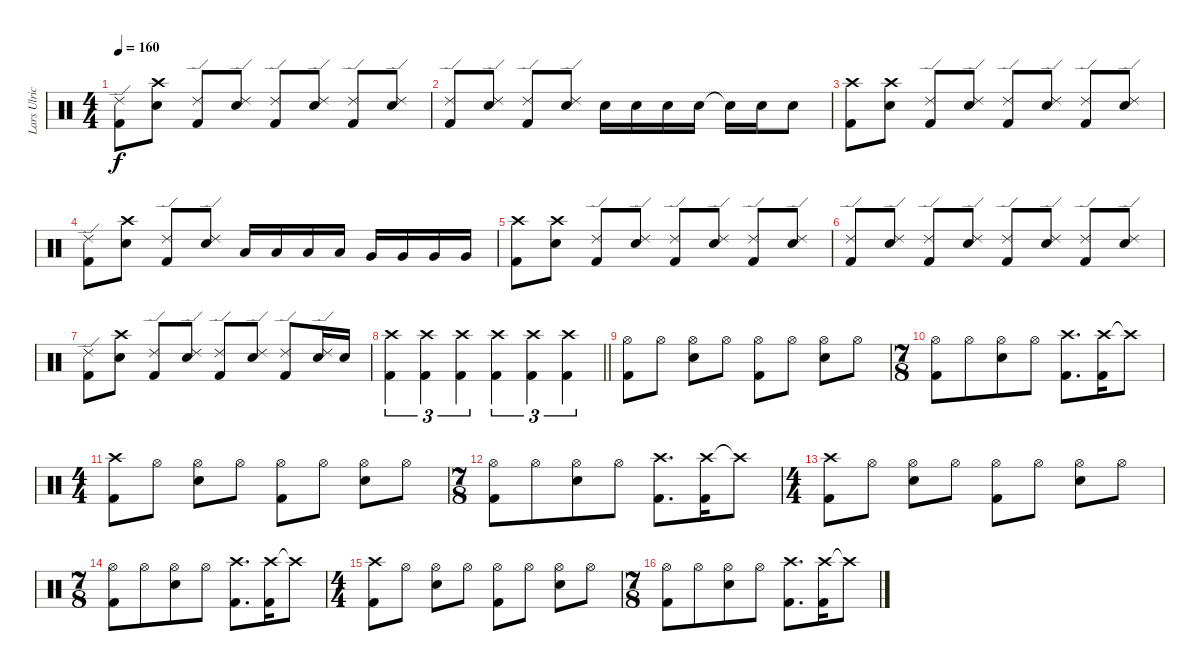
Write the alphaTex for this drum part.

\track ("Lars Ulrich" "Lars Ulric") {instrument percussion}
\staff {score}
\articulation defaults
\ts (4 4)
\tempo 160
\clef neutral
\ks c
("Ride (edge) 2" "Kick (hit) 2").8{dy f} ("Crash high (hit)" "Electric Snare (hit)").8 ("Ride (edge) 2" "Kick (hit) 2").8 ("Ride (edge) 2" "Electric Snare (hit)").8 ("Ride (edge) 2" "Kick (hit) 2").8 ("Ride (edge) 2" "Electric Snare (hit)").8 ("Ride (edge) 2" "Kick (hit) 2").8 ("Ride (edge) 2" "Electric Snare (hit)").8 |
("Ride (edge) 2" "Kick (hit) 2").8 ("Ride (edge) 2" "Electric Snare (hit)").8 ("Ride (edge) 2" "Kick (hit) 2").8 ("Ride (edge) 2" "Electric Snare (hit)").8 "Electric Snare (hit)".16 "Electric Snare (hit)".16 "Electric Snare (hit)".16 "Electric Snare (hit)".16 "Snare (hit)"{t}.16 "Electric Snare (hit)".16 "Electric Snare (hit)".8 |
("Crash high (hit)" "Kick (hit) 2").8 ("Crash high (hit)" "Electric Snare (hit)").8 ("Ride (edge) 2" "Kick (hit) 2").8 ("Ride (edge) 2" "Electric Snare (hit)").8 ("Ride (edge) 2" "Kick (hit) 2").8 ("Ride (edge) 2" "Electric Snare (hit)").8 ("Ride (edge) 2" "Kick (hit) 2").8 ("Ride (edge) 2" "Electric Snare (hit)").8 |
("Ride (edge) 2" "Kick (hit) 2").8 ("Crash high (hit)" "Electric Snare (hit)").8 ("Ride (edge) 2" "Kick (hit) 2").8 ("Ride (edge) 2" "Electric Snare (hit)").8 "Low Tom (hit)".16 "Low Tom (hit)".16 "Low Tom (hit)".16 "Low Tom (hit)".16 "Very Low Tom (hit)".16 "Very Low Tom (hit)".16 "Very Low Tom (hit)".16 "Very Low Tom (hit)".16 |
("Crash high (hit)" "Kick (hit) 2").8 ("Crash high (hit)" "Electric Snare (hit)").8 ("Ride (edge) 2" "Kick (hit) 2").8 ("Ride (edge) 2" "Electric Snare (hit)").8 ("Ride (edge) 2" "Kick (hit) 2").8 ("Ride (edge) 2" "Electric Snare (hit)").8 ("Ride (edge) 2" "Kick (hit) 2").8 ("Ride (edge) 2" "Electric Snare (hit)").8 |
("Ride (edge) 2" "Kick (hit) 2").8 ("Ride (edge) 2" "Electric Snare (hit)").8 ("Ride (edge) 2" "Kick (hit) 2").8 ("Ride (edge) 2" "Electric Snare (hit)").8 ("Ride (edge) 2" "Kick (hit) 2").8 ("Ride (edge) 2" "Electric Snare (hit)").8 ("Ride (edge) 2" "Kick (hit) 2").8 ("Ride (edge) 2" "Electric Snare (hit)").8 |
("Ride (edge) 2" "Kick (hit) 2").8 ("Crash high (hit)" "Electric Snare (hit)").8 ("Ride (edge) 2" "Kick (hit) 2").8 ("Ride (edge) 2" "Electric Snare (hit)").8 ("Ride (edge) 2" "Kick (hit) 2").8 ("Ride (edge) 2" "Electric Snare (hit)").8 ("Ride (edge) 2" "Kick (hit) 2").8 ("Ride (edge) 2" "Electric Snare (hit)").16 "Electric Snare (hit)".16 |
\barLineRight lightlight
("Crash high (hit)" "Kick (hit) 2").4{tu (3 2)} ("Crash high (hit)" "Kick (hit) 2").4{tu (3 2)} ("Crash high (hit)" "Kick (hit) 2").4{tu (3 2)} ("Crash high (hit)" "Kick (hit) 2").4{tu (3 2)} ("Crash high (hit)" "Kick (hit) 2").4{tu (3 2)} ("Crash high (hit)" "Kick (hit) 2").4{tu (3 2)} |
("Hi-Hat (open)" "Kick (hit) 2").8 "Hi-Hat (open)".8 ("Hi-Hat (open)" "Electric Snare (hit)").8 "Hi-Hat (open)".8 ("Hi-Hat (open)" "Kick (hit) 2").8 "Hi-Hat (open)".8 ("Hi-Hat (open)" "Electric Snare (hit)").8 "Hi-Hat (open)".8 |
\ts (7 8)
("Hi-Hat (open)" "Kick (hit) 2").8 "Hi-Hat (open)".8 ("Hi-Hat (open)" "Electric Snare (hit)").8 "Hi-Hat (open)".8 ("Crash high (hit)" "Kick (hit) 2").8{d} ("Crash high (hit)" "Kick (hit) 2").16 "Crash high (hit)"{t}.8 |
\ts (4 4)
("Crash high (hit)" "Kick (hit) 2").8 "Hi-Hat (open)".8 ("Hi-Hat (open)" "Electric Snare (hit)").8 "Hi-Hat (open)".8 ("Hi-Hat (open)" "Kick (hit) 2").8 "Hi-Hat (open)".8 ("Hi-Hat (open)" "Electric Snare (hit)").8 "Hi-Hat (open)".8 |
\ts (7 8)
("Hi-Hat (open)" "Kick (hit) 2").8 "Hi-Hat (open)".8 ("Hi-Hat (open)" "Electric Snare (hit)").8 "Hi-Hat (open)".8 ("Crash high (hit)" "Kick (hit) 2").8{d} ("Crash high (hit)" "Kick (hit) 2").16 "Crash high (hit)"{t}.8 |
\ts (4 4)
("Crash high (hit)" "Kick (hit) 2").8 "Hi-Hat (open)".8 ("Hi-Hat (open)" "Electric Snare (hit)").8 "Hi-Hat (open)".8 ("Hi-Hat (open)" "Kick (hit) 2").8 "Hi-Hat (open)".8 ("Hi-Hat (open)" "Electric Snare (hit)").8 "Hi-Hat (open)".8 |
\ts (7 8)
("Hi-Hat (open)" "Kick (hit) 2").8 "Hi-Hat (open)".8 ("Hi-Hat (open)" "Electric Snare (hit)").8 "Hi-Hat (open)".8 ("Crash high (hit)" "Kick (hit) 2").8{d} ("Crash high (hit)" "Kick (hit) 2").16 "Crash high (hit)"{t}.8 |
\ts (4 4)
("Crash high (hit)" "Kick (hit) 2").8 "Hi-Hat (open)".8 ("Hi-Hat (open)" "Electric Snare (hit)").8 "Hi-Hat (open)".8 ("Hi-Hat (open)" "Kick (hit) 2").8 "Hi-Hat (open)".8 ("Hi-Hat (open)" "Electric Snare (hit)").8 "Hi-Hat (open)".8 |
\ts (7 8)
("Hi-Hat (open)" "Kick (hit) 2").8 "Hi-Hat (open)".8 ("Hi-Hat (open)" "Electric Snare (hit)").8 "Hi-Hat (open)".8 ("Crash high (hit)" "Kick (hit) 2").8{d} ("Crash high (hit)" "Kick (hit) 2").16 "Crash high (hit)"{t}.8
